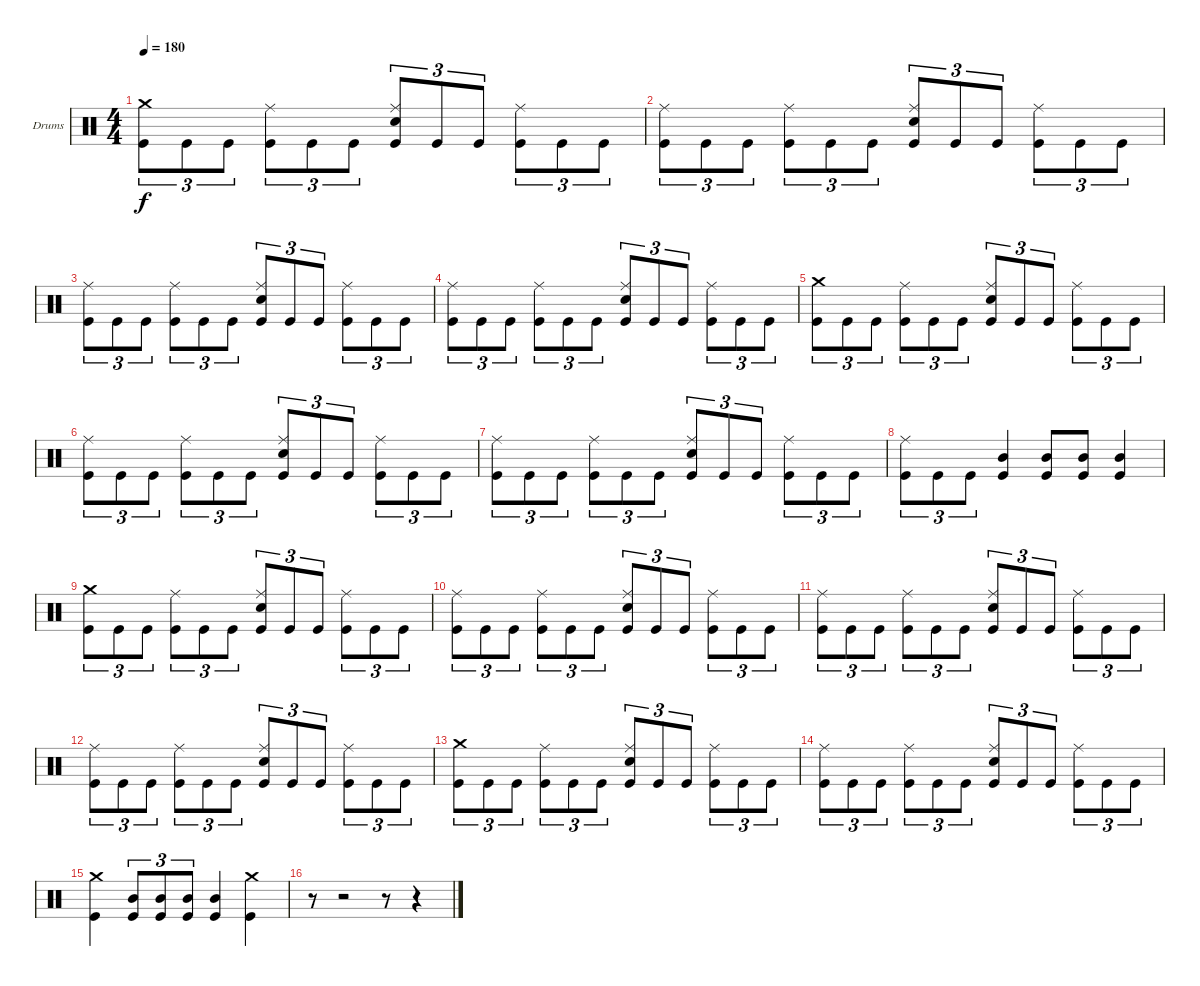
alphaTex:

\bracketExtendMode groupsimilarinstruments
\firstSystemTrackNameOrientation horizontal
\otherSystemsTrackNameOrientation horizontal
\track ("Drumkit" "Drums") {instrument percussion}
\staff {score}
\articulation defaults
\ts (4 4)
\tempo 180
\clef neutral
\ks c
("Crash medium (hit)" "Kick (hit)").8{tu (3 2) dy f} "Kick (hit)".8{tu (3 2)} "Kick (hit)".8{tu (3 2)} ("Ride (middle)" "Kick (hit)").8{tu (3 2)} "Kick (hit)".8{tu (3 2)} "Kick (hit)".8{tu (3 2)} ("Ride (middle)" "Snare (hit) 2" "Kick (hit)").8{tu (3 2)} "Kick (hit)".8{tu (3 2)} "Kick (hit)".8{tu (3 2)} ("Ride (middle)" "Kick (hit)").8{tu (3 2)} "Kick (hit)".8{tu (3 2)} "Kick (hit)".8{tu (3 2)} |
("Ride (middle)" "Kick (hit)").8{tu (3 2)} "Kick (hit)".8{tu (3 2)} "Kick (hit)".8{tu (3 2)} ("Ride (middle)" "Kick (hit)").8{tu (3 2)} "Kick (hit)".8{tu (3 2)} "Kick (hit)".8{tu (3 2)} ("Ride (middle)" "Snare (hit) 2" "Kick (hit)").8{tu (3 2)} "Kick (hit)".8{tu (3 2)} "Kick (hit)".8{tu (3 2)} ("Ride (middle)" "Kick (hit)").8{tu (3 2)} "Kick (hit)".8{tu (3 2)} "Kick (hit)".8{tu (3 2)} |
("Ride (middle)" "Kick (hit)").8{tu (3 2)} "Kick (hit)".8{tu (3 2)} "Kick (hit)".8{tu (3 2)} ("Ride (middle)" "Kick (hit)").8{tu (3 2)} "Kick (hit)".8{tu (3 2)} "Kick (hit)".8{tu (3 2)} ("Ride (middle)" "Snare (hit) 2" "Kick (hit)").8{tu (3 2)} "Kick (hit)".8{tu (3 2)} "Kick (hit)".8{tu (3 2)} ("Ride (middle)" "Kick (hit)").8{tu (3 2)} "Kick (hit)".8{tu (3 2)} "Kick (hit)".8{tu (3 2)} |
("Ride (middle)" "Kick (hit)").8{tu (3 2)} "Kick (hit)".8{tu (3 2)} "Kick (hit)".8{tu (3 2)} ("Ride (middle)" "Kick (hit)").8{tu (3 2)} "Kick (hit)".8{tu (3 2)} "Kick (hit)".8{tu (3 2)} ("Ride (middle)" "Snare (hit) 2" "Kick (hit)").8{tu (3 2)} "Kick (hit)".8{tu (3 2)} "Kick (hit)".8{tu (3 2)} ("Ride (middle)" "Kick (hit)").8{tu (3 2)} "Kick (hit)".8{tu (3 2)} "Kick (hit)".8{tu (3 2)} |
("Crash medium (hit)" "Kick (hit)").8{tu (3 2)} "Kick (hit)".8{tu (3 2)} "Kick (hit)".8{tu (3 2)} ("Ride (middle)" "Kick (hit)").8{tu (3 2)} "Kick (hit)".8{tu (3 2)} "Kick (hit)".8{tu (3 2)} ("Ride (middle)" "Snare (hit) 2" "Kick (hit)").8{tu (3 2)} "Kick (hit)".8{tu (3 2)} "Kick (hit)".8{tu (3 2)} ("Ride (middle)" "Kick (hit)").8{tu (3 2)} "Kick (hit)".8{tu (3 2)} "Kick (hit)".8{tu (3 2)} |
("Ride (middle)" "Kick (hit)").8{tu (3 2)} "Kick (hit)".8{tu (3 2)} "Kick (hit)".8{tu (3 2)} ("Ride (middle)" "Kick (hit)").8{tu (3 2)} "Kick (hit)".8{tu (3 2)} "Kick (hit)".8{tu (3 2)} ("Ride (middle)" "Snare (hit) 2" "Kick (hit)").8{tu (3 2)} "Kick (hit)".8{tu (3 2)} "Kick (hit)".8{tu (3 2)} ("Ride (middle)" "Kick (hit)").8{tu (3 2)} "Kick (hit)".8{tu (3 2)} "Kick (hit)".8{tu (3 2)} |
("Ride (middle)" "Kick (hit)").8{tu (3 2)} "Kick (hit)".8{tu (3 2)} "Kick (hit)".8{tu (3 2)} ("Ride (middle)" "Kick (hit)").8{tu (3 2)} "Kick (hit)".8{tu (3 2)} "Kick (hit)".8{tu (3 2)} ("Ride (middle)" "Snare (hit) 2" "Kick (hit)").8{tu (3 2)} "Kick (hit)".8{tu (3 2)} "Kick (hit)".8{tu (3 2)} ("Ride (middle)" "Kick (hit)").8{tu (3 2)} "Kick (hit)".8{tu (3 2)} "Kick (hit)".8{tu (3 2)} |
("Ride (middle)" "Kick (hit)").8{tu (3 2)} "Kick (hit)".8{tu (3 2)} "Kick (hit)".8{tu (3 2)} ("Mid Tom (hit)" "Kick (hit)").4 ("Mid Tom (hit)" "Kick (hit)").8 ("Mid Tom (hit)" "Kick (hit)").8 ("Mid Tom (hit)" "Kick (hit)").4 |
("Crash medium (hit)" "Kick (hit)").8{tu (3 2)} "Kick (hit)".8{tu (3 2)} "Kick (hit)".8{tu (3 2)} ("Ride (middle)" "Kick (hit)").8{tu (3 2)} "Kick (hit)".8{tu (3 2)} "Kick (hit)".8{tu (3 2)} ("Ride (middle)" "Snare (hit) 2" "Kick (hit)").8{tu (3 2)} "Kick (hit)".8{tu (3 2)} "Kick (hit)".8{tu (3 2)} ("Ride (middle)" "Kick (hit)").8{tu (3 2)} "Kick (hit)".8{tu (3 2)} "Kick (hit)".8{tu (3 2)} |
("Ride (middle)" "Kick (hit)").8{tu (3 2)} "Kick (hit)".8{tu (3 2)} "Kick (hit)".8{tu (3 2)} ("Ride (middle)" "Kick (hit)").8{tu (3 2)} "Kick (hit)".8{tu (3 2)} "Kick (hit)".8{tu (3 2)} ("Ride (middle)" "Snare (hit) 2" "Kick (hit)").8{tu (3 2)} "Kick (hit)".8{tu (3 2)} "Kick (hit)".8{tu (3 2)} ("Ride (middle)" "Kick (hit)").8{tu (3 2)} "Kick (hit)".8{tu (3 2)} "Kick (hit)".8{tu (3 2)} |
("Ride (middle)" "Kick (hit)").8{tu (3 2)} "Kick (hit)".8{tu (3 2)} "Kick (hit)".8{tu (3 2)} ("Ride (middle)" "Kick (hit)").8{tu (3 2)} "Kick (hit)".8{tu (3 2)} "Kick (hit)".8{tu (3 2)} ("Ride (middle)" "Snare (hit) 2" "Kick (hit)").8{tu (3 2)} "Kick (hit)".8{tu (3 2)} "Kick (hit)".8{tu (3 2)} ("Ride (middle)" "Kick (hit)").8{tu (3 2)} "Kick (hit)".8{tu (3 2)} "Kick (hit)".8{tu (3 2)} |
("Ride (middle)" "Kick (hit)").8{tu (3 2)} "Kick (hit)".8{tu (3 2)} "Kick (hit)".8{tu (3 2)} ("Ride (middle)" "Kick (hit)").8{tu (3 2)} "Kick (hit)".8{tu (3 2)} "Kick (hit)".8{tu (3 2)} ("Ride (middle)" "Snare (hit) 2" "Kick (hit)").8{tu (3 2)} "Kick (hit)".8{tu (3 2)} "Kick (hit)".8{tu (3 2)} ("Ride (middle)" "Kick (hit)").8{tu (3 2)} "Kick (hit)".8{tu (3 2)} "Kick (hit)".8{tu (3 2)} |
("Crash medium (hit)" "Kick (hit)").8{tu (3 2)} "Kick (hit)".8{tu (3 2)} "Kick (hit)".8{tu (3 2)} ("Ride (middle)" "Kick (hit)").8{tu (3 2)} "Kick (hit)".8{tu (3 2)} "Kick (hit)".8{tu (3 2)} ("Ride (middle)" "Snare (hit) 2" "Kick (hit)").8{tu (3 2)} "Kick (hit)".8{tu (3 2)} "Kick (hit)".8{tu (3 2)} ("Ride (middle)" "Kick (hit)").8{tu (3 2)} "Kick (hit)".8{tu (3 2)} "Kick (hit)".8{tu (3 2)} |
("Ride (middle)" "Kick (hit)").8{tu (3 2)} "Kick (hit)".8{tu (3 2)} "Kick (hit)".8{tu (3 2)} ("Ride (middle)" "Kick (hit)").8{tu (3 2)} "Kick (hit)".8{tu (3 2)} "Kick (hit)".8{tu (3 2)} ("Ride (middle)" "Snare (hit) 2" "Kick (hit)").8{tu (3 2)} "Kick (hit)".8{tu (3 2)} "Kick (hit)".8{tu (3 2)} ("Ride (middle)" "Kick (hit)").8{tu (3 2)} "Kick (hit)".8{tu (3 2)} "Kick (hit)".8{tu (3 2)} |
("Crash medium (hit)" "Kick (hit)").4 ("Mid Tom (hit)" "Kick (hit)").8{tu (3 2)} ("Mid Tom (hit)" "Kick (hit)").8{tu (3 2)} ("Mid Tom (hit)" "Kick (hit)").8{tu (3 2)} ("Mid Tom (hit)" "Kick (hit)").4 ("Crash medium (hit)" "Kick (hit)").4 |
r.8 r.2 r.8 r.4
